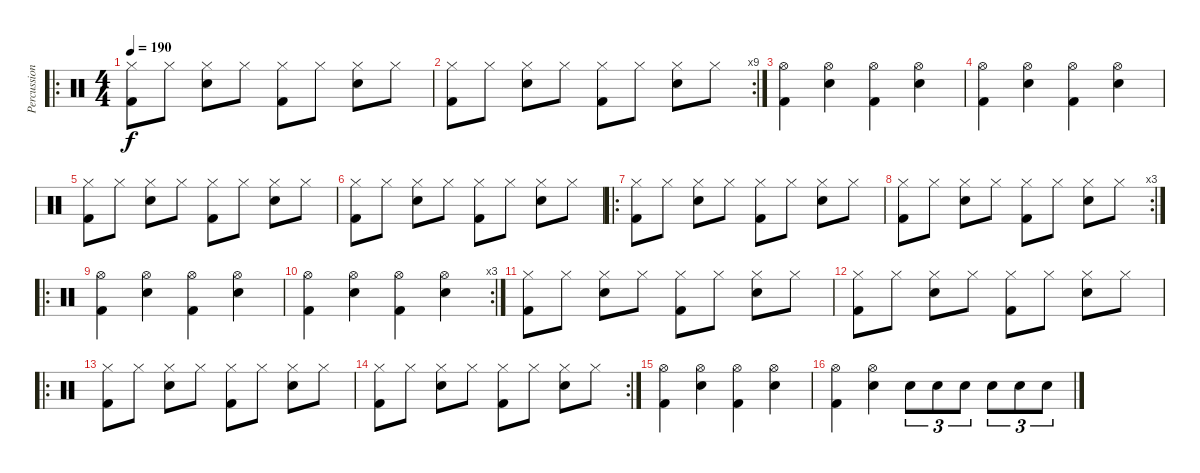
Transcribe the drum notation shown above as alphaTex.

\track ("Percussion" "Percussion") {instrument percussion}
\staff {score}
\articulation defaults
\ro
\ts (4 4)
\tempo 190
\clef neutral
\ks c
("Hi-Hat (closed)" "Kick (hit) 2").8{dy f} "Hi-Hat (closed)".8 ("Hi-Hat (closed)" "Snare (hit) 2").8 "Hi-Hat (closed)".8 ("Hi-Hat (closed)" "Kick (hit) 2").8 "Hi-Hat (closed)".8 ("Hi-Hat (closed)" "Snare (hit) 2").8 "Hi-Hat (closed)".8 |
\rc 9
("Hi-Hat (closed)" "Kick (hit) 2").8 "Hi-Hat (closed)".8 ("Hi-Hat (closed)" "Snare (hit) 2").8 "Hi-Hat (closed)".8 ("Hi-Hat (closed)" "Kick (hit) 2").8 "Hi-Hat (closed)".8 ("Hi-Hat (closed)" "Snare (hit) 2").8 "Hi-Hat (closed)".8 |
("Hi-Hat (open)" "Kick (hit) 2").4 ("Hi-Hat (open)" "Snare (hit) 2").4 ("Hi-Hat (open)" "Kick (hit) 2").4 ("Hi-Hat (open)" "Snare (hit) 2").4 |
("Hi-Hat (open)" "Kick (hit) 2").4 ("Hi-Hat (open)" "Snare (hit) 2").4 ("Hi-Hat (open)" "Kick (hit) 2").4 ("Hi-Hat (open)" "Snare (hit) 2").4 |
("Hi-Hat (closed)" "Kick (hit) 2").8 "Hi-Hat (closed)".8 ("Hi-Hat (closed)" "Snare (hit) 2").8 "Hi-Hat (closed)".8 ("Hi-Hat (closed)" "Kick (hit) 2").8 "Hi-Hat (closed)".8 ("Hi-Hat (closed)" "Snare (hit) 2").8 "Hi-Hat (closed)".8 |
("Hi-Hat (closed)" "Kick (hit) 2").8 "Hi-Hat (closed)".8 ("Hi-Hat (closed)" "Snare (hit) 2").8 "Hi-Hat (closed)".8 ("Hi-Hat (closed)" "Kick (hit) 2").8 "Hi-Hat (closed)".8 ("Hi-Hat (closed)" "Snare (hit) 2").8 "Hi-Hat (closed)".8 |
\ro
("Hi-Hat (closed)" "Kick (hit) 2").8 "Hi-Hat (closed)".8 ("Hi-Hat (closed)" "Snare (hit) 2").8 "Hi-Hat (closed)".8 ("Hi-Hat (closed)" "Kick (hit) 2").8 "Hi-Hat (closed)".8 ("Hi-Hat (closed)" "Snare (hit) 2").8 "Hi-Hat (closed)".8 |
\rc 3
("Hi-Hat (closed)" "Kick (hit) 2").8 "Hi-Hat (closed)".8 ("Hi-Hat (closed)" "Snare (hit) 2").8 "Hi-Hat (closed)".8 ("Hi-Hat (closed)" "Kick (hit) 2").8 "Hi-Hat (closed)".8 ("Hi-Hat (closed)" "Snare (hit) 2").8 "Hi-Hat (closed)".8 |
\ro
("Hi-Hat (open)" "Kick (hit) 2").4 ("Hi-Hat (open)" "Snare (hit) 2").4 ("Hi-Hat (open)" "Kick (hit) 2").4 ("Hi-Hat (open)" "Snare (hit) 2").4 |
\rc 3
("Hi-Hat (open)" "Kick (hit) 2").4 ("Hi-Hat (open)" "Snare (hit) 2").4 ("Hi-Hat (open)" "Kick (hit) 2").4 ("Hi-Hat (open)" "Snare (hit) 2").4 |
("Hi-Hat (closed)" "Kick (hit) 2").8 "Hi-Hat (closed)".8 ("Hi-Hat (closed)" "Snare (hit) 2").8 "Hi-Hat (closed)".8 ("Hi-Hat (closed)" "Kick (hit) 2").8 "Hi-Hat (closed)".8 ("Hi-Hat (closed)" "Snare (hit) 2").8 "Hi-Hat (closed)".8 |
("Hi-Hat (closed)" "Kick (hit) 2").8 "Hi-Hat (closed)".8 ("Hi-Hat (closed)" "Snare (hit) 2").8 "Hi-Hat (closed)".8 ("Hi-Hat (closed)" "Kick (hit) 2").8 "Hi-Hat (closed)".8 ("Hi-Hat (closed)" "Snare (hit) 2").8 "Hi-Hat (closed)".8 |
\ro
("Hi-Hat (closed)" "Kick (hit) 2").8 "Hi-Hat (closed)".8 ("Hi-Hat (closed)" "Snare (hit) 2").8 "Hi-Hat (closed)".8 ("Hi-Hat (closed)" "Kick (hit) 2").8 "Hi-Hat (closed)".8 ("Hi-Hat (closed)" "Snare (hit) 2").8 "Hi-Hat (closed)".8 |
\rc 2
("Hi-Hat (closed)" "Kick (hit) 2").8 "Hi-Hat (closed)".8 ("Hi-Hat (closed)" "Snare (hit) 2").8 "Hi-Hat (closed)".8 ("Hi-Hat (closed)" "Kick (hit) 2").8 "Hi-Hat (closed)".8 ("Hi-Hat (closed)" "Snare (hit) 2").8 "Hi-Hat (closed)".8 |
("Hi-Hat (open)" "Kick (hit) 2").4 ("Hi-Hat (open)" "Snare (hit) 2").4 ("Hi-Hat (open)" "Kick (hit) 2").4 ("Hi-Hat (open)" "Snare (hit) 2").4 |
("Hi-Hat (open)" "Kick (hit) 2").4 ("Hi-Hat (open)" "Snare (hit) 2").4 "Snare (hit) 2".8{tu (3 2)} "Snare (hit) 2".8{tu (3 2)} "Snare (hit) 2".8{tu (3 2)} "Snare (hit) 2".8{tu (3 2)} "Snare (hit) 2".8{tu (3 2)} "Snare (hit) 2".8{tu (3 2)}
